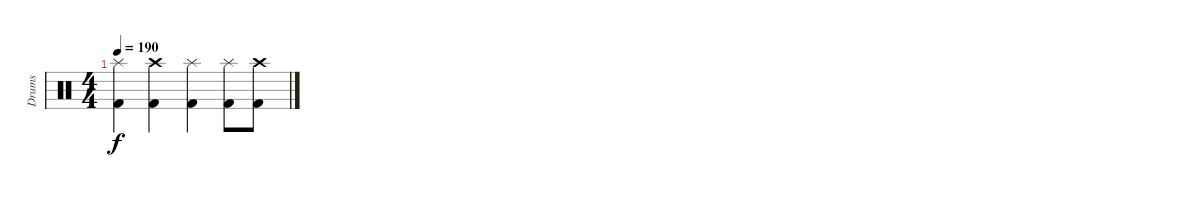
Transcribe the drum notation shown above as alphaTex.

\track ("Drums" "Drums") {instrument percussion}
\staff {score}
\articulation defaults
\ts (4 4)
\tempo 190
\clef neutral
\ks c
("Kick (hit) 2" "Splash (hit)").4{dy f} ("Kick (hit) 2" "Crash high (hit)").4 ("Kick (hit) 2" "Splash (hit)").4 ("Kick (hit) 2" "Splash (hit)").8 ("Kick (hit) 2" "Crash high (hit)").8
